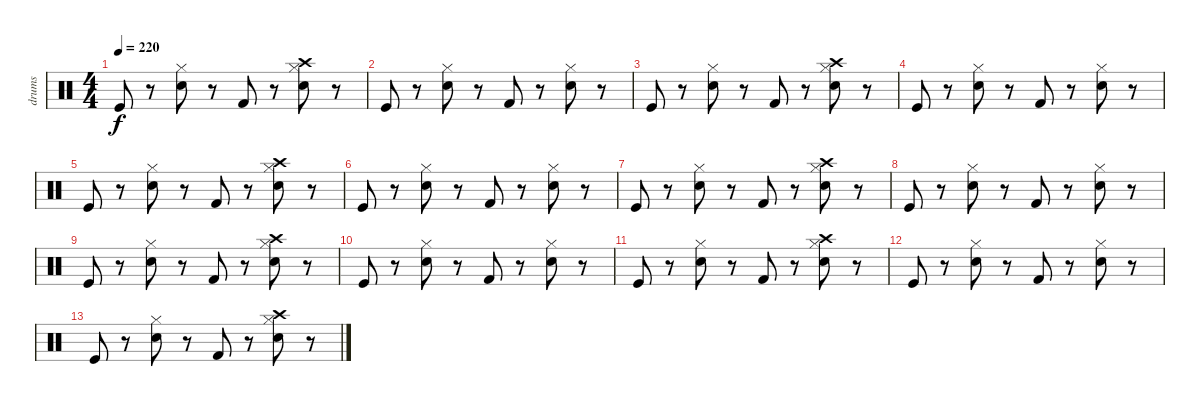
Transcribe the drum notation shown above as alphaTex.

\track ("drums" "drums") {instrument percussion}
\staff {score}
\articulation defaults
\ts (4 4)
\tempo 220
\clef neutral
\ks c "Kick (hit)".8{dy f}
r.8 ("Electric Snare (hit)" "Hi-Hat (closed)").8 r.8 "Kick (hit) 2".8 r.8 ("Electric Snare (hit)" "Hi-Hat (closed)" "Crash high (hit)").8 r.8 |
"Kick (hit)".8 r.8 ("Electric Snare (hit)" "Hi-Hat (closed)").8 r.8 "Kick (hit) 2".8 r.8 ("Electric Snare (hit)" "Hi-Hat (closed)").8 r.8 |
"Kick (hit)".8 r.8 ("Electric Snare (hit)" "Hi-Hat (closed)").8 r.8 "Kick (hit) 2".8 r.8 ("Electric Snare (hit)" "Hi-Hat (closed)" "Crash high (hit)").8 r.8 |
"Kick (hit)".8 r.8 ("Electric Snare (hit)" "Hi-Hat (closed)").8 r.8 "Kick (hit) 2".8 r.8 ("Electric Snare (hit)" "Hi-Hat (closed)").8 r.8 |
"Kick (hit)".8 r.8 ("Electric Snare (hit)" "Hi-Hat (closed)").8 r.8 "Kick (hit) 2".8 r.8 ("Electric Snare (hit)" "Hi-Hat (closed)" "Crash high (hit)").8 r.8 |
"Kick (hit)".8 r.8 ("Electric Snare (hit)" "Hi-Hat (closed)").8 r.8 "Kick (hit) 2".8 r.8 ("Electric Snare (hit)" "Hi-Hat (closed)").8 r.8 |
"Kick (hit)".8 r.8 ("Electric Snare (hit)" "Hi-Hat (closed)").8 r.8 "Kick (hit) 2".8 r.8 ("Electric Snare (hit)" "Hi-Hat (closed)" "Crash high (hit)").8 r.8 |
"Kick (hit)".8 r.8 ("Electric Snare (hit)" "Hi-Hat (closed)").8 r.8 "Kick (hit) 2".8 r.8 ("Electric Snare (hit)" "Hi-Hat (closed)").8 r.8 |
"Kick (hit)".8 r.8 ("Electric Snare (hit)" "Hi-Hat (closed)").8 r.8 "Kick (hit) 2".8 r.8 ("Electric Snare (hit)" "Hi-Hat (closed)" "Crash high (hit)").8 r.8 |
"Kick (hit)".8 r.8 ("Electric Snare (hit)" "Hi-Hat (closed)").8 r.8 "Kick (hit) 2".8 r.8 ("Electric Snare (hit)" "Hi-Hat (closed)").8 r.8 |
"Kick (hit)".8 r.8 ("Electric Snare (hit)" "Hi-Hat (closed)").8 r.8 "Kick (hit) 2".8 r.8 ("Electric Snare (hit)" "Hi-Hat (closed)" "Crash high (hit)").8 r.8 |
"Kick (hit)".8 r.8 ("Electric Snare (hit)" "Hi-Hat (closed)").8 r.8 "Kick (hit) 2".8 r.8 ("Electric Snare (hit)" "Hi-Hat (closed)").8 r.8 |
"Kick (hit)".8 r.8 ("Electric Snare (hit)" "Hi-Hat (closed)").8 r.8 "Kick (hit) 2".8 r.8 ("Electric Snare (hit)" "Hi-Hat (closed)" "Crash high (hit)").8 r.8
